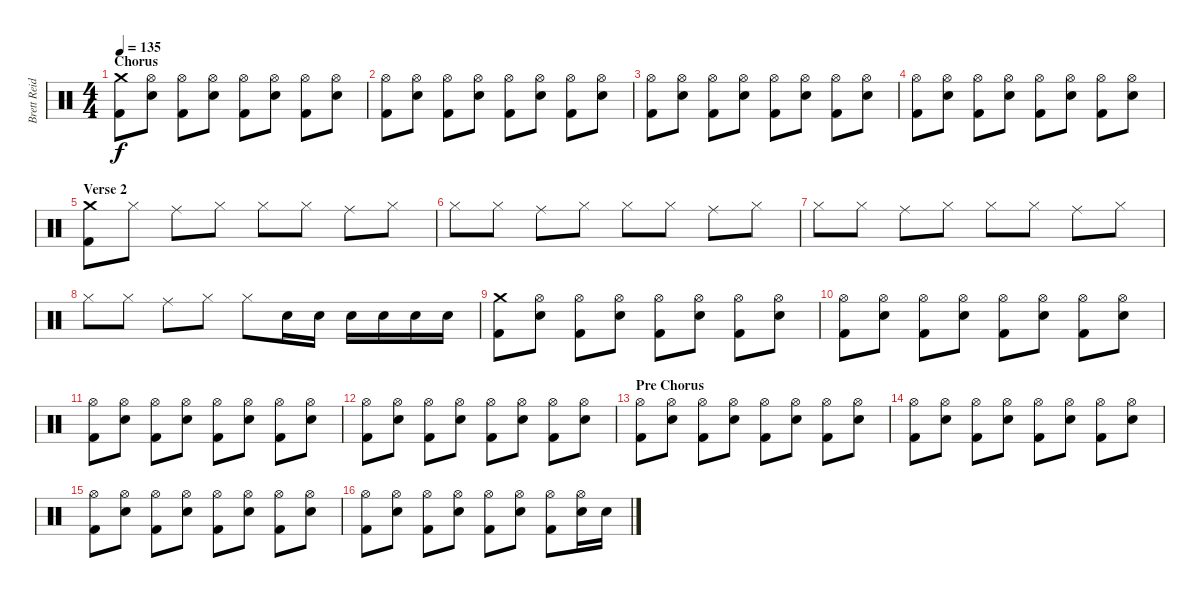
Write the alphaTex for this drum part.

\track ("Brett Reid" "Brett Reid") {instrument percussion}
\staff {score}
\articulation defaults
\ts (4 4)
\section ("" "Chorus")
\tempo 135
\clef neutral
\ks c
("Crash medium (hit)" "Kick (hit) 2").8{dy f} ("Hi-Hat (open)" "Electric Snare (hit)").8 ("Hi-Hat (open)" "Kick (hit) 2").8 ("Hi-Hat (open)" "Electric Snare (hit)").8 ("Hi-Hat (open)" "Kick (hit) 2").8 ("Hi-Hat (open)" "Electric Snare (hit)").8 ("Hi-Hat (open)" "Kick (hit) 2").8 ("Hi-Hat (open)" "Electric Snare (hit)").8 |
("Hi-Hat (open)" "Kick (hit) 2").8 ("Hi-Hat (open)" "Electric Snare (hit)").8 ("Hi-Hat (open)" "Kick (hit) 2").8 ("Hi-Hat (open)" "Electric Snare (hit)").8 ("Hi-Hat (open)" "Kick (hit) 2").8 ("Hi-Hat (open)" "Electric Snare (hit)").8 ("Hi-Hat (open)" "Kick (hit) 2").8 ("Hi-Hat (open)" "Electric Snare (hit)").8 |
("Hi-Hat (open)" "Kick (hit) 2").8 ("Hi-Hat (open)" "Electric Snare (hit)").8 ("Hi-Hat (open)" "Kick (hit) 2").8 ("Hi-Hat (open)" "Electric Snare (hit)").8 ("Hi-Hat (open)" "Kick (hit) 2").8 ("Hi-Hat (open)" "Electric Snare (hit)").8 ("Hi-Hat (open)" "Kick (hit) 2").8 ("Hi-Hat (open)" "Electric Snare (hit)").8 |
("Hi-Hat (open)" "Kick (hit) 2").8 ("Hi-Hat (open)" "Electric Snare (hit)").8 ("Hi-Hat (open)" "Kick (hit) 2").8 ("Hi-Hat (open)" "Electric Snare (hit)").8 ("Hi-Hat (open)" "Kick (hit) 2").8 ("Hi-Hat (open)" "Electric Snare (hit)").8 ("Hi-Hat (open)" "Kick (hit) 2").8 ("Hi-Hat (open)" "Electric Snare (hit)").8 |
\section ("" "Verse 2")
("Crash medium (hit)" "Kick (hit) 2").8 "Hi-Hat (closed)".8 "Ride (middle)".8 "Hi-Hat (closed)".8 "Hi-Hat (closed)".8 "Hi-Hat (closed)".8 "Ride (middle)".8 "Hi-Hat (closed)".8 |
"Hi-Hat (closed)".8 "Hi-Hat (closed)".8 "Ride (middle)".8 "Hi-Hat (closed)".8 "Hi-Hat (closed)".8 "Hi-Hat (closed)".8 "Ride (middle)".8 "Hi-Hat (closed)".8 |
"Hi-Hat (closed)".8 "Hi-Hat (closed)".8 "Ride (middle)".8 "Hi-Hat (closed)".8 "Hi-Hat (closed)".8 "Hi-Hat (closed)".8 "Ride (middle)".8 "Hi-Hat (closed)".8 |
"Hi-Hat (closed)".8 "Hi-Hat (closed)".8 "Ride (middle)".8 "Hi-Hat (closed)".8 "Hi-Hat (closed)".8 "Electric Snare (hit)".16 "Electric Snare (hit)".16 "Electric Snare (hit)".16 "Electric Snare (hit)".16 "Electric Snare (hit)".16 "Electric Snare (hit)".16 |
("Crash medium (hit)" "Kick (hit) 2").8 ("Hi-Hat (open)" "Electric Snare (hit)").8 ("Hi-Hat (open)" "Kick (hit) 2").8 ("Hi-Hat (open)" "Electric Snare (hit)").8 ("Hi-Hat (open)" "Kick (hit) 2").8 ("Hi-Hat (open)" "Electric Snare (hit)").8 ("Hi-Hat (open)" "Kick (hit) 2").8 ("Hi-Hat (open)" "Electric Snare (hit)").8 |
("Hi-Hat (open)" "Kick (hit) 2").8 ("Hi-Hat (open)" "Electric Snare (hit)").8 ("Hi-Hat (open)" "Kick (hit) 2").8 ("Hi-Hat (open)" "Electric Snare (hit)").8 ("Hi-Hat (open)" "Kick (hit) 2").8 ("Hi-Hat (open)" "Electric Snare (hit)").8 ("Hi-Hat (open)" "Kick (hit) 2").8 ("Hi-Hat (open)" "Electric Snare (hit)").8 |
("Hi-Hat (open)" "Kick (hit) 2").8 ("Hi-Hat (open)" "Electric Snare (hit)").8 ("Hi-Hat (open)" "Kick (hit) 2").8 ("Hi-Hat (open)" "Electric Snare (hit)").8 ("Hi-Hat (open)" "Kick (hit) 2").8 ("Hi-Hat (open)" "Electric Snare (hit)").8 ("Hi-Hat (open)" "Kick (hit) 2").8 ("Hi-Hat (open)" "Electric Snare (hit)").8 |
("Hi-Hat (open)" "Kick (hit) 2").8 ("Hi-Hat (open)" "Electric Snare (hit)").8 ("Hi-Hat (open)" "Kick (hit) 2").8 ("Hi-Hat (open)" "Electric Snare (hit)").8 ("Hi-Hat (open)" "Kick (hit) 2").8 ("Hi-Hat (open)" "Electric Snare (hit)").8 ("Hi-Hat (open)" "Kick (hit) 2").8 ("Hi-Hat (open)" "Electric Snare (hit)").8 |
\section ("" "Pre Chorus")
("Hi-Hat (open)" "Kick (hit) 2").8 ("Hi-Hat (open)" "Electric Snare (hit)").8 ("Hi-Hat (open)" "Kick (hit) 2").8 ("Hi-Hat (open)" "Electric Snare (hit)").8 ("Hi-Hat (open)" "Kick (hit) 2").8 ("Hi-Hat (open)" "Electric Snare (hit)").8 ("Hi-Hat (open)" "Kick (hit) 2").8 ("Hi-Hat (open)" "Electric Snare (hit)").8 |
("Hi-Hat (open)" "Kick (hit) 2").8 ("Hi-Hat (open)" "Electric Snare (hit)").8 ("Hi-Hat (open)" "Kick (hit) 2").8 ("Hi-Hat (open)" "Electric Snare (hit)").8 ("Hi-Hat (open)" "Kick (hit) 2").8 ("Hi-Hat (open)" "Electric Snare (hit)").8 ("Hi-Hat (open)" "Kick (hit) 2").8 ("Hi-Hat (open)" "Electric Snare (hit)").8 |
("Hi-Hat (open)" "Kick (hit) 2").8 ("Hi-Hat (open)" "Electric Snare (hit)").8 ("Hi-Hat (open)" "Kick (hit) 2").8 ("Hi-Hat (open)" "Electric Snare (hit)").8 ("Hi-Hat (open)" "Kick (hit) 2").8 ("Hi-Hat (open)" "Electric Snare (hit)").8 ("Hi-Hat (open)" "Kick (hit) 2").8 ("Hi-Hat (open)" "Electric Snare (hit)").8 |
("Hi-Hat (open)" "Kick (hit) 2").8 ("Hi-Hat (open)" "Electric Snare (hit)").8 ("Hi-Hat (open)" "Kick (hit) 2").8 ("Hi-Hat (open)" "Electric Snare (hit)").8 ("Hi-Hat (open)" "Kick (hit) 2").8 ("Hi-Hat (open)" "Electric Snare (hit)").8 ("Hi-Hat (open)" "Kick (hit) 2").8 ("Hi-Hat (open)" "Electric Snare (hit)").16 "Electric Snare (hit)".16
